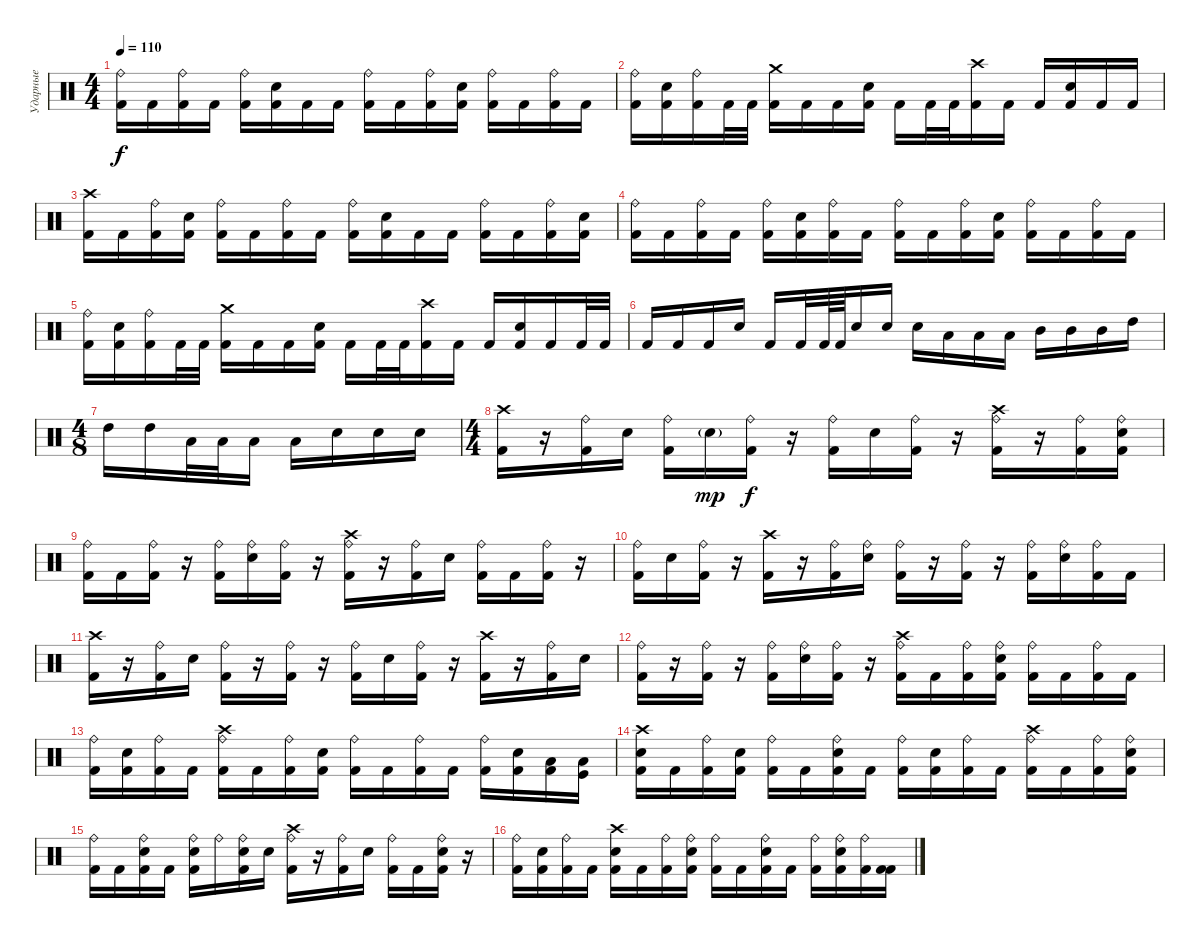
\track ("Ударные" "Ударные") {instrument percussion}
\staff {score}
\articulation defaults
\ts (4 4)
\tempo 110
\clef neutral
\ks c
("Ride (bell)" "Kick (hit) 2").16{dy f} "Kick (hit) 2".16 ("Ride (bell)" "Kick (hit) 2").16 "Kick (hit) 2".16 ("Ride (bell)" "Kick (hit) 2").16 ("Electric Snare (hit)" "Kick (hit) 2").16 "Kick (hit) 2".16 "Kick (hit) 2".16 ("Ride (bell)" "Kick (hit) 2").16 "Kick (hit) 2".16 ("Ride (bell)" "Kick (hit) 2").16 ("Electric Snare (hit)" "Kick (hit) 2").16 ("Ride (bell)" "Kick (hit) 2").16 "Kick (hit) 2".16 ("Ride (bell)" "Kick (hit) 2").16 "Kick (hit) 2".16 |
("Ride (bell)" "Kick (hit) 2").16 ("Electric Snare (hit)" "Kick (hit) 2").16 ("Ride (bell)" "Kick (hit) 2").16 "Kick (hit) 2".32 "Kick (hit) 2".32 ("Crash medium (hit)" "Kick (hit) 2").16 "Kick (hit) 2".16 "Kick (hit) 2".16 ("Electric Snare (hit)" "Kick (hit) 2").16 "Kick (hit) 2".16 "Kick (hit) 2".32 "Kick (hit) 2".32 ("Crash high (hit)" "Kick (hit) 2").16 "Kick (hit) 2".16 "Kick (hit) 2".16 ("Electric Snare (hit)" "Kick (hit) 2").16 "Kick (hit) 2".16 "Kick (hit) 2".16 |
("Crash high (hit)" "Kick (hit) 2").16 "Kick (hit) 2".16 ("Ride (bell)" "Kick (hit) 2").16 ("Electric Snare (hit)" "Kick (hit) 2").16 ("Ride (bell)" "Kick (hit) 2").16 "Kick (hit) 2".16 ("Ride (bell)" "Kick (hit) 2").16 "Kick (hit) 2".16 ("Ride (bell)" "Kick (hit) 2").16 ("Electric Snare (hit)" "Kick (hit) 2").16 "Kick (hit) 2".16 "Kick (hit) 2".16 ("Ride (bell)" "Kick (hit) 2").16 "Kick (hit) 2".16 ("Ride (bell)" "Kick (hit) 2").16 ("Electric Snare (hit)" "Kick (hit) 2").16 |
("Ride (bell)" "Kick (hit) 2").16 "Kick (hit) 2".16 ("Ride (bell)" "Kick (hit) 2").16 "Kick (hit) 2".16 ("Ride (bell)" "Kick (hit) 2").16 ("Electric Snare (hit)" "Kick (hit) 2").16 ("Ride (bell)" "Kick (hit) 2").16 "Kick (hit) 2".16 ("Ride (bell)" "Kick (hit) 2").16 "Kick (hit) 2".16 ("Ride (bell)" "Kick (hit) 2").16 ("Electric Snare (hit)" "Kick (hit) 2").16 ("Ride (bell)" "Kick (hit) 2").16 "Kick (hit) 2".16 ("Ride (bell)" "Kick (hit) 2").16 "Kick (hit) 2".16 |
("Ride (bell)" "Kick (hit) 2").16 ("Electric Snare (hit)" "Kick (hit) 2").16 ("Ride (bell)" "Kick (hit) 2").16 "Kick (hit) 2".32 "Kick (hit) 2".32 ("Crash medium (hit)" "Kick (hit) 2").16 "Kick (hit) 2".16 "Kick (hit) 2".16 ("Electric Snare (hit)" "Kick (hit) 2").16 "Kick (hit) 2".16 "Kick (hit) 2".32 "Kick (hit) 2".32 ("Crash high (hit)" "Kick (hit) 2").16 "Kick (hit) 2".16 "Kick (hit) 2".16 ("Electric Snare (hit)" "Kick (hit) 2").16 "Kick (hit) 2".16 "Kick (hit) 2".32 "Kick (hit) 2".32 |
"Kick (hit) 2".16 "Kick (hit) 2".16 "Kick (hit) 2".16 "Electric Snare (hit)".16 "Kick (hit) 2".16 "Kick (hit) 2".32 "Kick (hit) 2".64 "Kick (hit) 2".64 "Electric Snare (hit)".16 "Electric Snare (hit)".16 "Electric Snare (hit)".16 "Low Tom (hit)".16 "Low Tom (hit)".16 "Low Tom (hit)".16 "Mid Tom (hit)".16 "Mid Tom (hit)".16 "Mid Tom (hit)".16 "High Tom (hit)".16 |
\ts (4 8)
"High Tom (hit)".16 "High Tom (hit)".16 "Low Tom (hit)".32 "Low Tom (hit)".32 "Low Tom (hit)".16 "Low Tom (hit)".16 "Electric Snare (hit)".16 "Electric Snare (hit)".16 "Electric Snare (hit)".16 |
\ts (4 4)
("Crash high (hit)" "Kick (hit) 2").16 r.16 ("Ride (bell)" "Kick (hit) 2").16 "Electric Snare (hit)".16 ("Ride (bell)" "Kick (hit) 2").16 "Electric Snare (hit)"{g}.16{dy mp} ("Ride (bell)" "Kick (hit) 2").16{dy f} r.16 ("Ride (bell)" "Kick (hit) 2").16 "Electric Snare (hit)".16 ("Ride (bell)" "Kick (hit) 2").16 r.16 ("Crash high (hit)" "Ride (bell)" "Kick (hit) 2").16 r.16 ("Ride (bell)" "Kick (hit) 2").16 ("Ride (bell)" "Electric Snare (hit)" "Kick (hit) 2").16 |
("Ride (bell)" "Kick (hit) 2").16 "Kick (hit) 2".16 ("Ride (bell)" "Kick (hit) 2").16 r.16 ("Ride (bell)" "Kick (hit) 2").16 ("Ride (bell)" "Electric Snare (hit)").16 ("Ride (bell)" "Kick (hit) 2").16 r.16 ("Crash high (hit)" "Ride (bell)" "Kick (hit) 2").16 r.16 ("Ride (bell)" "Kick (hit) 2").16 "Electric Snare (hit)".16 ("Ride (bell)" "Kick (hit) 2").16 "Kick (hit) 2".16 ("Ride (bell)" "Kick (hit) 2").16 r.16 |
("Ride (bell)" "Kick (hit) 2").16 "Electric Snare (hit)".16 ("Ride (bell)" "Kick (hit) 2").16 r.16 ("Crash high (hit)" "Kick (hit) 2").16 r.16 ("Ride (bell)" "Kick (hit) 2").16 ("Ride (bell)" "Electric Snare (hit)").16 ("Ride (bell)" "Kick (hit) 2").16 r.16 ("Ride (bell)" "Kick (hit) 2").16 r.16 ("Ride (bell)" "Kick (hit) 2").16 ("Ride (bell)" "Electric Snare (hit)").16 ("Ride (bell)" "Kick (hit) 2").16 "Kick (hit) 2".16 |
("Crash high (hit)" "Kick (hit) 2").16 r.16 ("Ride (bell)" "Kick (hit) 2").16 "Electric Snare (hit)".16 ("Ride (bell)" "Kick (hit) 2").16 r.16 ("Ride (bell)" "Kick (hit) 2").16 r.16 ("Ride (bell)" "Kick (hit) 2").16 "Electric Snare (hit)".16 ("Ride (bell)" "Kick (hit) 2").16 r.16 ("Crash high (hit)" "Kick (hit) 2").16 r.16 ("Ride (bell)" "Kick (hit) 2").16 "Electric Snare (hit)".16 |
("Ride (bell)" "Kick (hit) 2").16 r.16 ("Ride (bell)" "Kick (hit) 2").16 r.16 ("Ride (bell)" "Kick (hit) 2").16 ("Ride (bell)" "Electric Snare (hit)").16 ("Ride (bell)" "Kick (hit) 2").16 r.16 ("Crash high (hit)" "Ride (bell)" "Kick (hit) 2").16 "Kick (hit) 2".16 ("Ride (bell)" "Kick (hit) 2").16 ("Ride (bell)" "Electric Snare (hit)" "Kick (hit) 2").16 ("Ride (bell)" "Kick (hit) 2").16 "Kick (hit) 2".16 ("Ride (bell)" "Kick (hit) 2").16 "Kick (hit) 2".16 |
("Ride (bell)" "Kick (hit) 2").16 ("Electric Snare (hit)" "Kick (hit) 2").16 ("Ride (bell)" "Kick (hit) 2").16 "Kick (hit) 2".16 ("Crash high (hit)" "Ride (bell)" "Kick (hit) 2").16 "Kick (hit) 2".16 ("Ride (bell)" "Kick (hit) 2").16 ("Electric Snare (hit)" "Kick (hit) 2").16 ("Ride (bell)" "Kick (hit) 2").16 "Kick (hit) 2".16 ("Ride (bell)" "Kick (hit) 2").16 "Kick (hit) 2".16 ("Ride (bell)" "Kick (hit) 2").16 ("Electric Snare (hit)" "Kick (hit) 2").16 ("Low Tom (hit)" "Kick (hit) 2").16 ("Low Tom (hit)" "Kick (hit)").16 |
("Crash high (hit)" "Electric Snare (hit)" "Kick (hit) 2").16 "Kick (hit) 2".16 ("Ride (bell)" "Kick (hit) 2").16 ("Electric Snare (hit)" "Kick (hit) 2").16 ("Ride (bell)" "Kick (hit) 2").16 "Kick (hit) 2".16 ("Ride (bell)" "Electric Snare (hit)" "Kick (hit) 2").16 "Kick (hit) 2".16 ("Ride (bell)" "Kick (hit) 2").16 ("Electric Snare (hit)" "Kick (hit) 2").16 ("Ride (bell)" "Kick (hit) 2").16 "Kick (hit) 2".16 ("Crash high (hit)" "Ride (bell)" "Kick (hit) 2").16 "Kick (hit) 2".16 ("Ride (bell)" "Kick (hit) 2").16 ("Ride (bell)" "Electric Snare (hit)" "Kick (hit) 2").16 |
("Ride (bell)" "Kick (hit) 2").16 "Kick (hit) 2".16 ("Ride (bell)" "Electric Snare (hit)" "Kick (hit) 2").16 "Kick (hit) 2".16 ("Ride (bell)" "Electric Snare (hit)" "Kick (hit) 2").16 "Ride (bell)".16 ("Ride (bell)" "Electric Snare (hit)" "Kick (hit) 2").16 "Electric Snare (hit)".16 ("Crash high (hit)" "Ride (bell)" "Kick (hit) 2").16 r.16 ("Ride (bell)" "Kick (hit) 2").16 "Electric Snare (hit)".16 ("Ride (bell)" "Kick (hit) 2").16 "Kick (hit) 2".16 ("Ride (bell)" "Electric Snare (hit)" "Kick (hit) 2").16 r.16 |
("Ride (bell)" "Kick (hit) 2").16 ("Electric Snare (hit)" "Kick (hit) 2").16 ("Ride (bell)" "Kick (hit) 2").16 "Kick (hit) 2".16 ("Crash high (hit)" "Electric Snare (hit)" "Kick (hit) 2").16 "Kick (hit) 2".16 ("Ride (bell)" "Kick (hit) 2").16 ("Ride (bell)" "Electric Snare (hit)" "Kick (hit) 2").16 ("Ride (bell)" "Kick (hit) 2").16 "Kick (hit) 2".16 ("Ride (bell)" "Electric Snare (hit)" "Kick (hit) 2").16 "Kick (hit) 2".16 ("Ride (bell)" "Kick (hit) 2").16 ("Ride (bell)" "Electric Snare (hit)" "Kick (hit) 2").16 ("Ride (bell)" "Kick (hit) 2").16 ("Kick (hit) 2" "Kick (hit) 2").16
